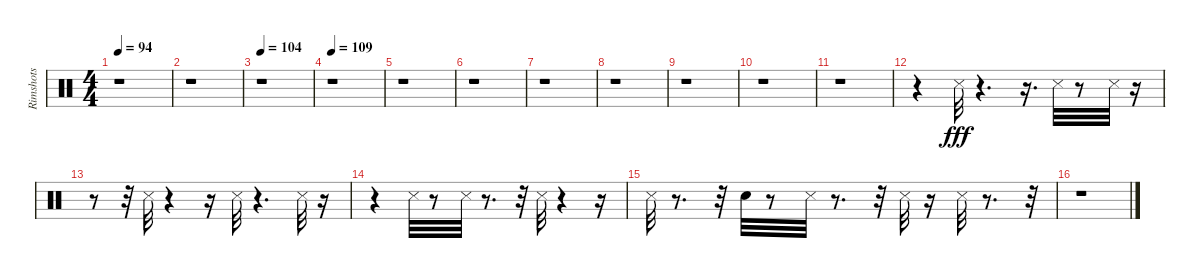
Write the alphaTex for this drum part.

\track ("Rimshots        " "Rimshots  ") {instrument percussion}
\staff {score}
\articulation defaults
\ts (4 4)
\tempo 94
\clef neutral
\ks c
r.1{dy fff} |
r.1 |
\tempo 104
r.1 |
\tempo 109
r.1 |
r.1 |
r.1 |
r.1 |
r.1 |
r.1 |
r.1 |
r.1 |
r.4 "Snare (side stick) 3".32 r.4{d} r.16{d} "Snare (side stick) 3".32 r.8 "Snare (side stick) 3".32 r.16 |
r.8 r.32 "Snare (side stick) 3".32 r.4 r.16 "Snare (side stick) 3".32 r.4{d} "Snare (side stick) 3".32 r.16 |
r.4 "Snare (side stick) 3".32 r.8 "Snare (side stick) 3".32 r.8{d} r.32 "Snare (side stick) 3".32 r.4 r.16 |
"Snare (side stick) 3".32 r.8{d} r.32 "Snare (hit) 2".32 r.8 "Snare (side stick) 3".32 r.8{d} r.32 "Snare (side stick) 3".32 r.16 "Snare (side stick) 3".32 r.8{d} r.32 |
r.1
